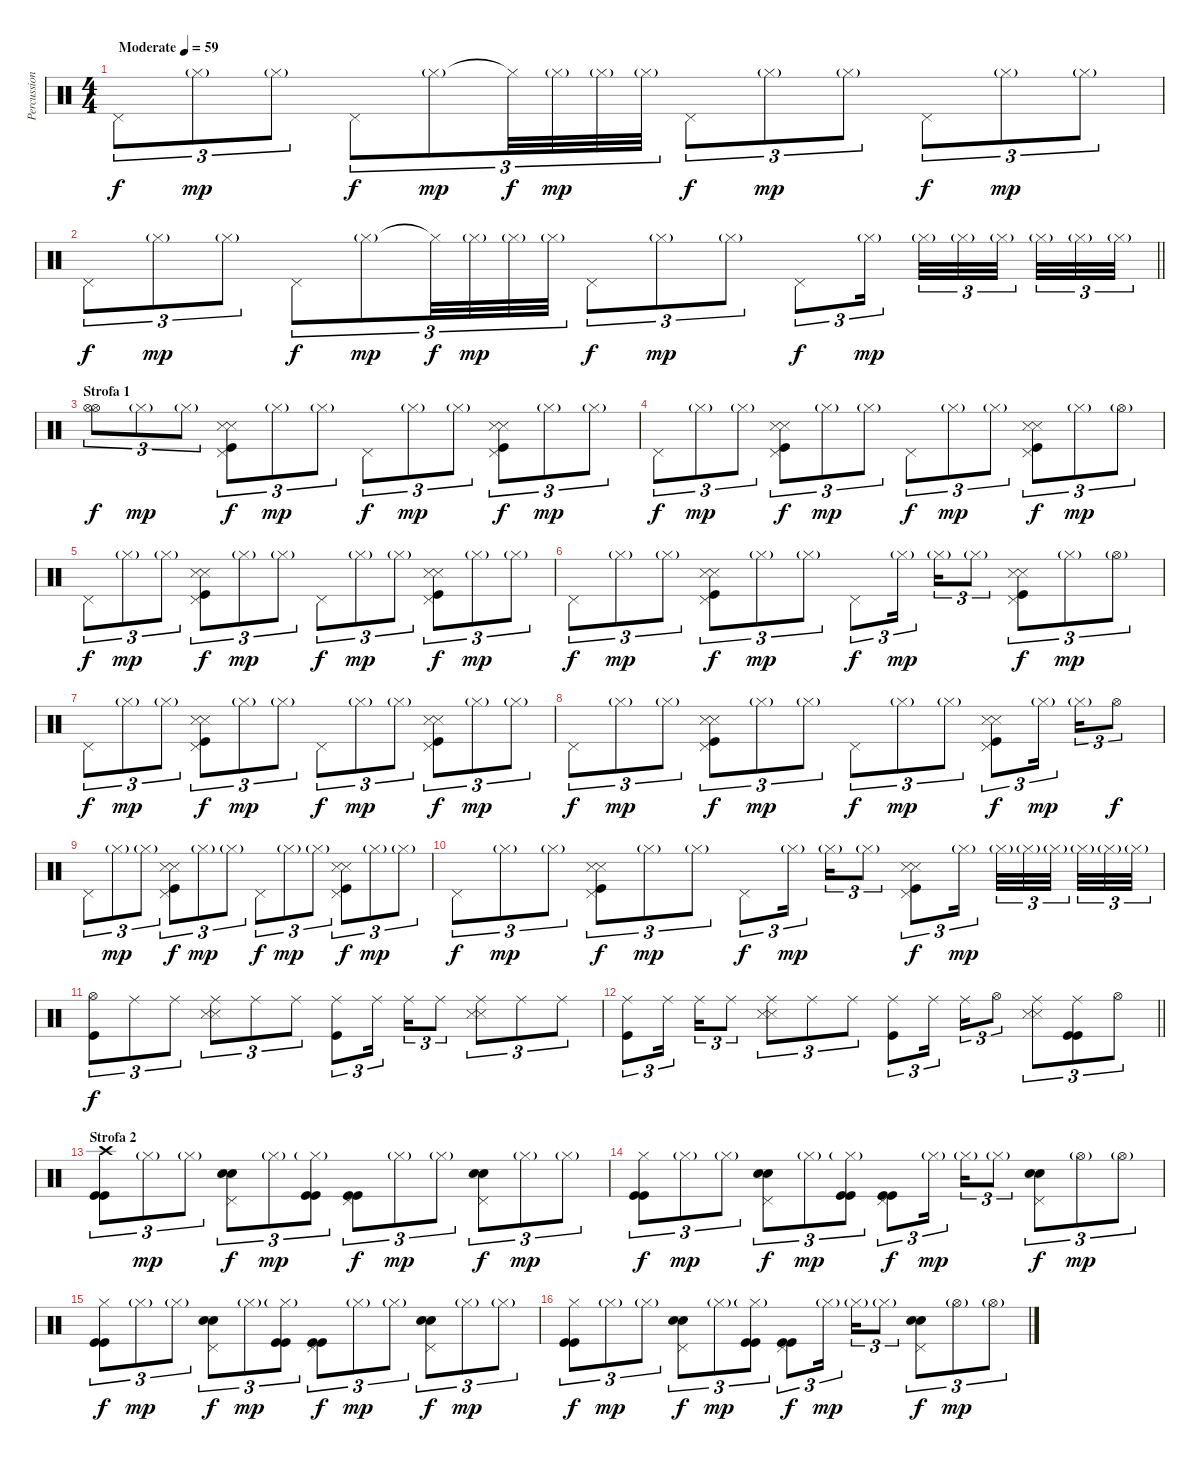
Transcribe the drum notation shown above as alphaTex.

\track ("Percussioni" "Percussion") {instrument percussion}
\staff {score}
\articulation defaults
\ts (4 4)
\tempo (59 "Moderate")
\clef neutral
\ks c "Pedal Hi-Hat (hit)".8{tu (3 2) dy f} "Hi-Hat (closed)"{g}.8{tu (3 2) dy mp} "Hi-Hat (closed)"{g}.8{tu (3 2)} "Pedal Hi-Hat (hit)".8{tu (3 2) dy f} "Hi-Hat (closed)"{g}.8{tu (3 2) dy mp} "Hi-Hat (closed)"{t}.32{tu (3 2) dy f} "Hi-Hat (closed)"{g}.32{tu (3 2) dy mp} "Hi-Hat (closed)"{g}.32{tu (3 2)} "Hi-Hat (closed)"{g}.32{tu (3 2)} "Pedal Hi-Hat (hit)".8{tu (3 2) dy f} "Hi-Hat (closed)"{g}.8{tu (3 2) dy mp} "Hi-Hat (closed)"{g}.8{tu (3 2)} "Pedal Hi-Hat (hit)".8{tu (3 2) dy f} "Hi-Hat (closed)"{g}.8{tu (3 2) dy mp} "Hi-Hat (closed)"{g}.8{tu (3 2)}
|
\barLineRight lightlight "Pedal Hi-Hat (hit)".8{tu (3 2) dy f} "Hi-Hat (closed)"{g}.8{tu (3 2) dy mp} "Hi-Hat (closed)"{g}.8{tu (3 2)} "Pedal Hi-Hat (hit)".8{tu (3 2) dy f} "Hi-Hat (closed)"{g}.8{tu (3 2) dy mp} "Hi-Hat (closed)"{t}.32{tu (3 2) dy f} "Hi-Hat (closed)"{g}.32{tu (3 2) dy mp} "Hi-Hat (closed)"{g}.32{tu (3 2)} "Hi-Hat (closed)"{g}.32{tu (3 2)} "Pedal Hi-Hat (hit)".8{tu (3 2) dy f} "Hi-Hat (closed)"{g}.8{tu (3 2) dy mp} "Hi-Hat (closed)"{g}.8{tu (3 2)} "Pedal Hi-Hat (hit)".8{tu (3 2) dy f} "Hi-Hat (closed)"{g}.16{tu (3 2) dy mp beam splitsecondary} "Hi-Hat (closed)"{g}.32{tu (3 2)} "Hi-Hat (closed)"{g}.32{tu (3 2)} "Hi-Hat (closed)"{g}.32{tu (3 2) beam splitsecondary} "Hi-Hat (closed)"{g}.32{tu (3 2)} "Hi-Hat (closed)"{g}.32{tu (3 2)} "Hi-Hat (closed)"{g}.32{tu (3 2)}
|
\section ("" "Strofa 1")
("Hi-Hat (open)" "Hi-Hat (open)").8{tu (3 2) dy f} "Hi-Hat (closed)"{g}.8{tu (3 2) dy mp} "Hi-Hat (closed)"{g}.8{tu (3 2)} ("Pedal Hi-Hat (hit)" "Snare (side stick) 3" "Snare (side stick) 3" "Kick (hit)").8{tu (3 2) dy f} "Hi-Hat (closed)"{g}.8{tu (3 2) dy mp} "Hi-Hat (closed)"{g}.8{tu (3 2)} "Pedal Hi-Hat (hit)".8{tu (3 2) dy f} "Hi-Hat (closed)"{g}.8{tu (3 2) dy mp} "Hi-Hat (closed)"{g}.8{tu (3 2)} ("Pedal Hi-Hat (hit)" "Snare (side stick) 3" "Snare (side stick) 3" "Kick (hit)").8{tu (3 2) dy f} "Hi-Hat (closed)"{g}.8{tu (3 2) dy mp} "Hi-Hat (closed)"{g}.8{tu (3 2)} |
"Pedal Hi-Hat (hit)".8{tu (3 2) dy f} "Hi-Hat (closed)"{g}.8{tu (3 2) dy mp} "Hi-Hat (closed)"{g}.8{tu (3 2)} ("Pedal Hi-Hat (hit)" "Snare (side stick) 3" "Snare (side stick) 3" "Kick (hit)").8{tu (3 2) dy f} "Hi-Hat (closed)"{g}.8{tu (3 2) dy mp} "Hi-Hat (closed)"{g}.8{tu (3 2)} "Pedal Hi-Hat (hit)".8{tu (3 2) dy f} "Hi-Hat (closed)"{g}.8{tu (3 2) dy mp} "Hi-Hat (closed)"{g}.8{tu (3 2)} ("Pedal Hi-Hat (hit)" "Snare (side stick) 3" "Snare (side stick) 3" "Kick (hit)").8{tu (3 2) dy f} "Hi-Hat (closed)"{g}.8{tu (3 2) dy mp} "Hi-Hat (open)"{g}.8{tu (3 2)} |
"Pedal Hi-Hat (hit)".8{tu (3 2) dy f} "Hi-Hat (closed)"{g}.8{tu (3 2) dy mp} "Hi-Hat (closed)"{g}.8{tu (3 2)} ("Pedal Hi-Hat (hit)" "Snare (side stick) 3" "Snare (side stick) 3" "Kick (hit)").8{tu (3 2) dy f} "Hi-Hat (closed)"{g}.8{tu (3 2) dy mp} "Hi-Hat (closed)"{g}.8{tu (3 2)} "Pedal Hi-Hat (hit)".8{tu (3 2) dy f} "Hi-Hat (closed)"{g}.8{tu (3 2) dy mp} "Hi-Hat (closed)"{g}.8{tu (3 2)} ("Pedal Hi-Hat (hit)" "Snare (side stick) 3" "Snare (side stick) 3" "Kick (hit)").8{tu (3 2) dy f} "Hi-Hat (closed)"{g}.8{tu (3 2) dy mp} "Hi-Hat (closed)"{g}.8{tu (3 2)} |
"Pedal Hi-Hat (hit)".8{tu (3 2) dy f} "Hi-Hat (closed)"{g}.8{tu (3 2) dy mp} "Hi-Hat (closed)"{g}.8{tu (3 2)} ("Pedal Hi-Hat (hit)" "Snare (side stick) 3" "Snare (side stick) 3" "Kick (hit)").8{tu (3 2) dy f} "Hi-Hat (closed)"{g}.8{tu (3 2) dy mp} "Hi-Hat (closed)"{g}.8{tu (3 2)} "Pedal Hi-Hat (hit)".8{tu (3 2) dy f} "Hi-Hat (closed)"{g}.16{tu (3 2) dy mp beam splitsecondary} "Hi-Hat (closed)"{g}.16{tu (3 2)} "Hi-Hat (closed)"{g}.8{tu (3 2)} ("Pedal Hi-Hat (hit)" "Snare (side stick) 3" "Snare (side stick) 3" "Kick (hit)").8{tu (3 2) dy f} "Hi-Hat (closed)"{g}.8{tu (3 2) dy mp} "Hi-Hat (open)"{g}.8{tu (3 2)} |
"Pedal Hi-Hat (hit)".8{tu (3 2) dy f} "Hi-Hat (closed)"{g}.8{tu (3 2) dy mp} "Hi-Hat (closed)"{g}.8{tu (3 2)} ("Pedal Hi-Hat (hit)" "Snare (side stick) 3" "Snare (side stick) 3" "Kick (hit)").8{tu (3 2) dy f} "Hi-Hat (closed)"{g}.8{tu (3 2) dy mp} "Hi-Hat (closed)"{g}.8{tu (3 2)} "Pedal Hi-Hat (hit)".8{tu (3 2) dy f} "Hi-Hat (closed)"{g}.8{tu (3 2) dy mp} "Hi-Hat (closed)"{g}.8{tu (3 2)} ("Pedal Hi-Hat (hit)" "Snare (side stick) 3" "Snare (side stick) 3" "Kick (hit)").8{tu (3 2) dy f} "Hi-Hat (closed)"{g}.8{tu (3 2) dy mp} "Hi-Hat (closed)"{g}.8{tu (3 2)} |
"Pedal Hi-Hat (hit)".8{tu (3 2) dy f} "Hi-Hat (closed)"{g}.8{tu (3 2) dy mp} "Hi-Hat (closed)"{g}.8{tu (3 2)} ("Pedal Hi-Hat (hit)" "Snare (side stick) 3" "Snare (side stick) 3" "Kick (hit)").8{tu (3 2) dy f} "Hi-Hat (closed)"{g}.8{tu (3 2) dy mp} "Hi-Hat (closed)"{g}.8{tu (3 2)} "Pedal Hi-Hat (hit)".8{tu (3 2) dy f} "Hi-Hat (closed)"{g}.8{tu (3 2) dy mp} "Hi-Hat (closed)"{g}.8{tu (3 2)} ("Pedal Hi-Hat (hit)" "Snare (side stick) 3" "Snare (side stick) 3" "Kick (hit)").8{tu (3 2) dy f} "Hi-Hat (closed)"{g}.16{tu (3 2) dy mp beam splitsecondary} "Hi-Hat (closed)"{g}.16{tu (3 2)} "Hi-Hat (open)".8{tu (3 2) dy f} |
"Pedal Hi-Hat (hit)".8{tu (3 2)} "Hi-Hat (closed)"{g}.8{tu (3 2) dy mp} "Hi-Hat (closed)"{g}.8{tu (3 2)} ("Pedal Hi-Hat (hit)" "Snare (side stick) 3" "Snare (side stick) 3" "Kick (hit)").8{tu (3 2) dy f} "Hi-Hat (closed)"{g}.8{tu (3 2) dy mp} "Hi-Hat (closed)"{g}.8{tu (3 2)} "Pedal Hi-Hat (hit)".8{tu (3 2) dy f} "Hi-Hat (closed)"{g}.8{tu (3 2) dy mp} "Hi-Hat (closed)"{g}.8{tu (3 2)} ("Pedal Hi-Hat (hit)" "Snare (side stick) 3" "Snare (side stick) 3" "Kick (hit)").8{tu (3 2) dy f} "Hi-Hat (closed)"{g}.8{tu (3 2) dy mp} "Hi-Hat (closed)"{g}.8{tu (3 2)} |
"Pedal Hi-Hat (hit)".8{tu (3 2) dy f} "Hi-Hat (closed)"{g}.8{tu (3 2) dy mp} "Hi-Hat (closed)"{g}.8{tu (3 2)} ("Pedal Hi-Hat (hit)" "Snare (side stick) 3" "Snare (side stick) 3" "Kick (hit)").8{tu (3 2) dy f} "Hi-Hat (closed)"{g}.8{tu (3 2) dy mp} "Hi-Hat (closed)"{g}.8{tu (3 2)} "Pedal Hi-Hat (hit)".8{tu (3 2) dy f} "Hi-Hat (closed)"{g}.16{tu (3 2) dy mp beam splitsecondary} "Hi-Hat (closed)"{g}.16{tu (3 2)} "Hi-Hat (closed)"{g}.8{tu (3 2)} ("Pedal Hi-Hat (hit)" "Snare (side stick) 3" "Snare (side stick) 3" "Kick (hit)").8{tu (3 2) dy f} "Hi-Hat (closed)"{g}.16{tu (3 2) dy mp beam splitsecondary} "Hi-Hat (closed)"{g}.32{tu (3 2)} "Hi-Hat (closed)"{g}.32{tu (3 2)} "Hi-Hat (closed)"{g}.32{tu (3 2) beam splitsecondary} "Hi-Hat (closed)"{g}.32{tu (3 2)} "Hi-Hat (closed)"{g}.32{tu (3 2)} "Hi-Hat (closed)"{g}.32{tu (3 2)} |
("Hi-Hat (open)" "Kick (hit)").8{tu (3 2) dy f} "Ride (middle)".8{tu (3 2)} "Ride (middle)".8{tu (3 2)} ("Ride (middle)" "Snare (side stick) 3" "Snare (side stick) 3").8{tu (3 2)} "Ride (middle)".8{tu (3 2)} "Ride (middle)".8{tu (3 2)} ("Ride (middle)" "Kick (hit)").8{tu (3 2)} "Ride (middle)".16{tu (3 2) beam splitsecondary} "Ride (middle)".16{tu (3 2)} "Ride (middle)".8{tu (3 2)} ("Ride (middle)" "Snare (side stick) 3" "Snare (side stick) 3").8{tu (3 2)} "Ride (middle)".8{tu (3 2)} "Ride (middle)".8{tu (3 2)} |
\barLineRight lightlight
("Ride (middle)" "Kick (hit)").8{tu (3 2)} "Ride (middle)".16{tu (3 2) beam splitsecondary} "Ride (middle)".16{tu (3 2)} "Ride (middle)".8{tu (3 2)} ("Ride (middle)" "Snare (side stick) 3" "Snare (side stick) 3").8{tu (3 2)} "Ride (middle)".8{tu (3 2)} "Ride (middle)".8{tu (3 2)} ("Ride (middle)" "Kick (hit)").8{tu (3 2)} "Ride (middle)".16{tu (3 2) beam splitsecondary} "Ride (middle)".16{tu (3 2)} "Hi-Hat (open)".8{tu (3 2)} ("Ride (middle)" "Snare (side stick) 3" "Snare (side stick) 3").8{tu (3 2)} ("Ride (middle)" "Kick (hit)" "Kick (hit)").8{tu (3 2)} "Hi-Hat (open)".8{tu (3 2)} |
\section ("" "Strofa 2")
("Crash high (hit)" "Kick (hit)" "Kick (hit)").8{tu (3 2)} "Hi-Hat (closed)"{g}.8{tu (3 2) dy mp} "Hi-Hat (closed)"{g}.8{tu (3 2)} ("Pedal Hi-Hat (hit)" "Snare (hit) 2" "Snare (hit) 2").8{tu (3 2) dy f} "Hi-Hat (closed)"{g}.8{tu (3 2) dy mp} ("Hi-Hat (closed)"{g} "Kick (hit)" "Kick (hit)").8{tu (3 2)} ("Pedal Hi-Hat (hit)" "Kick (hit)" "Kick (hit)").8{tu (3 2) dy f} "Hi-Hat (closed)"{g}.8{tu (3 2) dy mp} "Hi-Hat (closed)"{g}.8{tu (3 2)} ("Pedal Hi-Hat (hit)" "Snare (hit) 2" "Snare (hit) 2").8{tu (3 2) dy f} "Hi-Hat (closed)"{g}.8{tu (3 2) dy mp} "Hi-Hat (closed)"{g}.8{tu (3 2)} |
("Hi-Hat (closed)" "Kick (hit)" "Kick (hit)").8{tu (3 2) dy f} "Hi-Hat (closed)"{g}.8{tu (3 2) dy mp} "Hi-Hat (closed)"{g}.8{tu (3 2)} ("Pedal Hi-Hat (hit)" "Snare (hit) 2" "Snare (hit) 2").8{tu (3 2) dy f} "Hi-Hat (closed)"{g}.8{tu (3 2) dy mp} ("Hi-Hat (closed)"{g} "Kick (hit)" "Kick (hit)").8{tu (3 2)} ("Pedal Hi-Hat (hit)" "Kick (hit)" "Kick (hit)").8{tu (3 2) dy f} "Hi-Hat (closed)"{g}.16{tu (3 2) dy mp beam splitsecondary} "Hi-Hat (closed)"{g}.16{tu (3 2)} "Hi-Hat (closed)"{g}.8{tu (3 2)} ("Pedal Hi-Hat (hit)" "Snare (hit) 2" "Snare (hit) 2").8{tu (3 2) dy f} "Hi-Hat (open)"{g}.8{tu (3 2) dy mp} "Hi-Hat (open)"{g}.8{tu (3 2)} |
("Hi-Hat (closed)" "Kick (hit)" "Kick (hit)").8{tu (3 2) dy f} "Hi-Hat (closed)"{g}.8{tu (3 2) dy mp} "Hi-Hat (closed)"{g}.8{tu (3 2)} ("Pedal Hi-Hat (hit)" "Snare (hit) 2" "Snare (hit) 2").8{tu (3 2) dy f} "Hi-Hat (closed)"{g}.8{tu (3 2) dy mp} ("Hi-Hat (closed)"{g} "Kick (hit)" "Kick (hit)").8{tu (3 2)} ("Pedal Hi-Hat (hit)" "Kick (hit)" "Kick (hit)").8{tu (3 2) dy f} "Hi-Hat (closed)"{g}.8{tu (3 2) dy mp} "Hi-Hat (closed)"{g}.8{tu (3 2)} ("Pedal Hi-Hat (hit)" "Snare (hit) 2" "Snare (hit) 2").8{tu (3 2) dy f} "Hi-Hat (closed)"{g}.8{tu (3 2) dy mp} "Hi-Hat (closed)"{g}.8{tu (3 2)} |
("Hi-Hat (closed)" "Kick (hit)" "Kick (hit)").8{tu (3 2) dy f} "Hi-Hat (closed)"{g}.8{tu (3 2) dy mp} "Hi-Hat (closed)"{g}.8{tu (3 2)} ("Pedal Hi-Hat (hit)" "Snare (hit) 2" "Snare (hit) 2").8{tu (3 2) dy f} "Hi-Hat (closed)"{g}.8{tu (3 2) dy mp} ("Hi-Hat (closed)"{g} "Kick (hit)" "Kick (hit)").8{tu (3 2)} ("Pedal Hi-Hat (hit)" "Kick (hit)" "Kick (hit)").8{tu (3 2) dy f} "Hi-Hat (closed)"{g}.16{tu (3 2) dy mp beam splitsecondary} "Hi-Hat (closed)"{g}.16{tu (3 2)} "Hi-Hat (closed)"{g}.8{tu (3 2)} ("Pedal Hi-Hat (hit)" "Snare (hit) 2" "Snare (hit) 2").8{tu (3 2) dy f} "Hi-Hat (open)"{g}.8{tu (3 2) dy mp} "Hi-Hat (open)"{g}.8{tu (3 2)}
